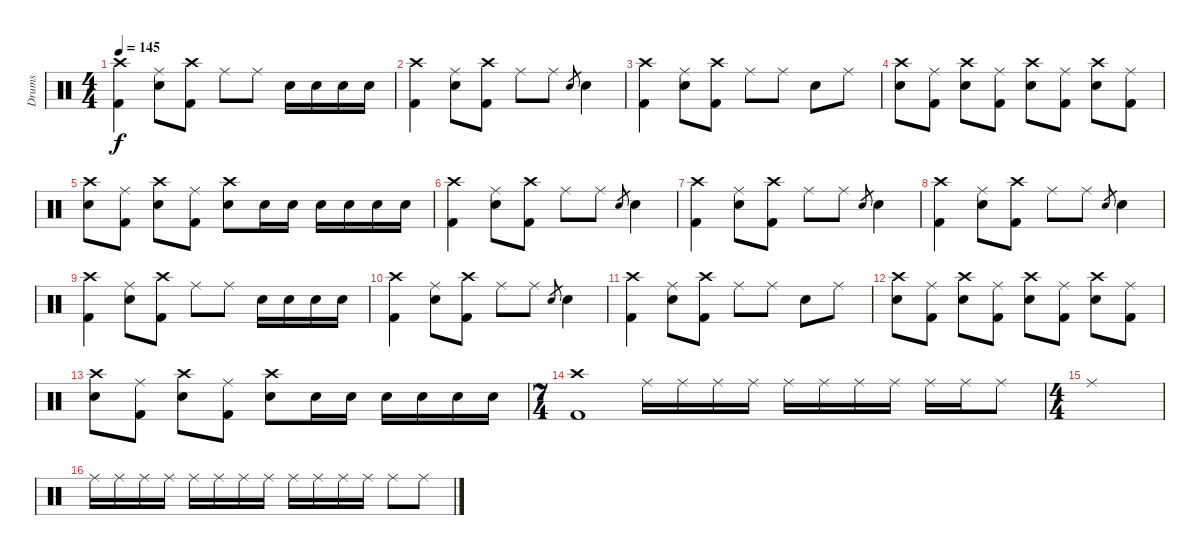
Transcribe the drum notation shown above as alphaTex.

\track ("Drums" "Drums") {instrument percussion}
\staff {score}
\articulation defaults
\ts (4 4)
\tempo 145
\clef neutral
\ks c
("Crash high (hit)" "Kick (hit) 2").4{dy f} ("Ride (middle)" "Electric Snare (hit)").8 ("Crash high (hit)" "Kick (hit) 2").8 "Ride (middle)".8 "Ride (middle)".8 "Electric Snare (hit)".16 "Electric Snare (hit)".16 "Electric Snare (hit)".16 "Electric Snare (hit)".16 |
("Crash high (hit)" "Kick (hit) 2").4 ("Ride (middle)" "Electric Snare (hit)").8 ("Crash high (hit)" "Kick (hit) 2").8 "Ride (middle)".8 "Ride (middle)".8 "Electric Snare (hit)".8{gr} "Electric Snare (hit)".4 |
("Crash high (hit)" "Kick (hit) 2").4 ("Ride (middle)" "Electric Snare (hit)").8 ("Crash high (hit)" "Kick (hit) 2").8 "Ride (middle)".8 "Ride (middle)".8 "Electric Snare (hit)".8 "Ride (middle)".8 |
("Crash high (hit)" "Electric Snare (hit)").8 ("Ride (middle)" "Kick (hit) 2").8 ("Crash high (hit)" "Electric Snare (hit)").8 ("Ride (middle)" "Kick (hit) 2").8 ("Crash high (hit)" "Electric Snare (hit)").8 ("Ride (middle)" "Kick (hit) 2").8 ("Crash high (hit)" "Electric Snare (hit)").8 ("Ride (middle)" "Kick (hit) 2").8 |
("Crash high (hit)" "Electric Snare (hit)").8 ("Ride (middle)" "Kick (hit) 2").8 ("Crash high (hit)" "Electric Snare (hit)").8 ("Ride (middle)" "Kick (hit) 2").8 ("Crash high (hit)" "Electric Snare (hit)").8 "Electric Snare (hit)".16 "Electric Snare (hit)".16 "Electric Snare (hit)".16 "Electric Snare (hit)".16 "Electric Snare (hit)".16 "Electric Snare (hit)".16 |
("Crash high (hit)" "Kick (hit) 2").4 ("Ride (middle)" "Electric Snare (hit)").8 ("Crash high (hit)" "Kick (hit) 2").8 "Ride (middle)".8 "Ride (middle)".8 "Electric Snare (hit)".8{gr} "Electric Snare (hit)".4 |
("Crash high (hit)" "Kick (hit) 2").4 ("Ride (middle)" "Electric Snare (hit)").8 ("Crash high (hit)" "Kick (hit) 2").8 "Ride (middle)".8 "Ride (middle)".8 "Electric Snare (hit)".8{gr} "Electric Snare (hit)".4 |
("Crash high (hit)" "Kick (hit) 2").4 ("Ride (middle)" "Electric Snare (hit)").8 ("Crash high (hit)" "Kick (hit) 2").8 "Ride (middle)".8 "Ride (middle)".8 "Electric Snare (hit)".8{gr} "Electric Snare (hit)".4 |
("Crash high (hit)" "Kick (hit) 2").4 ("Ride (middle)" "Electric Snare (hit)").8 ("Crash high (hit)" "Kick (hit) 2").8 "Ride (middle)".8 "Ride (middle)".8 "Electric Snare (hit)".16 "Electric Snare (hit)".16 "Electric Snare (hit)".16 "Electric Snare (hit)".16 |
("Crash high (hit)" "Kick (hit) 2").4 ("Ride (middle)" "Electric Snare (hit)").8 ("Crash high (hit)" "Kick (hit) 2").8 "Ride (middle)".8 "Ride (middle)".8 "Electric Snare (hit)".8{gr} "Electric Snare (hit)".4 |
("Crash high (hit)" "Kick (hit) 2").4 ("Ride (middle)" "Electric Snare (hit)").8 ("Crash high (hit)" "Kick (hit) 2").8 "Ride (middle)".8 "Ride (middle)".8 "Electric Snare (hit)".8 "Ride (middle)".8 |
("Crash high (hit)" "Electric Snare (hit)").8 ("Ride (middle)" "Kick (hit) 2").8 ("Crash high (hit)" "Electric Snare (hit)").8 ("Ride (middle)" "Kick (hit) 2").8 ("Crash high (hit)" "Electric Snare (hit)").8 ("Ride (middle)" "Kick (hit) 2").8 ("Crash high (hit)" "Electric Snare (hit)").8 ("Ride (middle)" "Kick (hit) 2").8 |
("Crash high (hit)" "Electric Snare (hit)").8 ("Ride (middle)" "Kick (hit) 2").8 ("Crash high (hit)" "Electric Snare (hit)").8 ("Ride (middle)" "Kick (hit) 2").8 ("Crash high (hit)" "Electric Snare (hit)").8 "Electric Snare (hit)".16 "Electric Snare (hit)".16 "Electric Snare (hit)".16 "Electric Snare (hit)".16 "Electric Snare (hit)".16 "Electric Snare (hit)".16 |
\ts (7 4)
\section ("" "")
("Crash high (hit)" "Kick (hit) 2").1 "Ride (middle)".16 "Ride (middle)".16 "Ride (middle)".16 "Ride (middle)".16 "Ride (middle)".16 "Ride (middle)".16 "Ride (middle)".16 "Ride (middle)".16 "Ride (middle)".16 "Ride (middle)".16 "Ride (middle)".8 |
\ts (4 4)
"Ride (middle)".1 |
"Ride (middle)".16 "Ride (middle)".16 "Ride (middle)".16 "Ride (middle)".16 "Ride (middle)".16 "Ride (middle)".16 "Ride (middle)".16 "Ride (middle)".16 "Ride (middle)".16 "Ride (middle)".16 "Ride (middle)".16 "Ride (middle)".16 "Ride (middle)".8 "Ride (middle)".8
